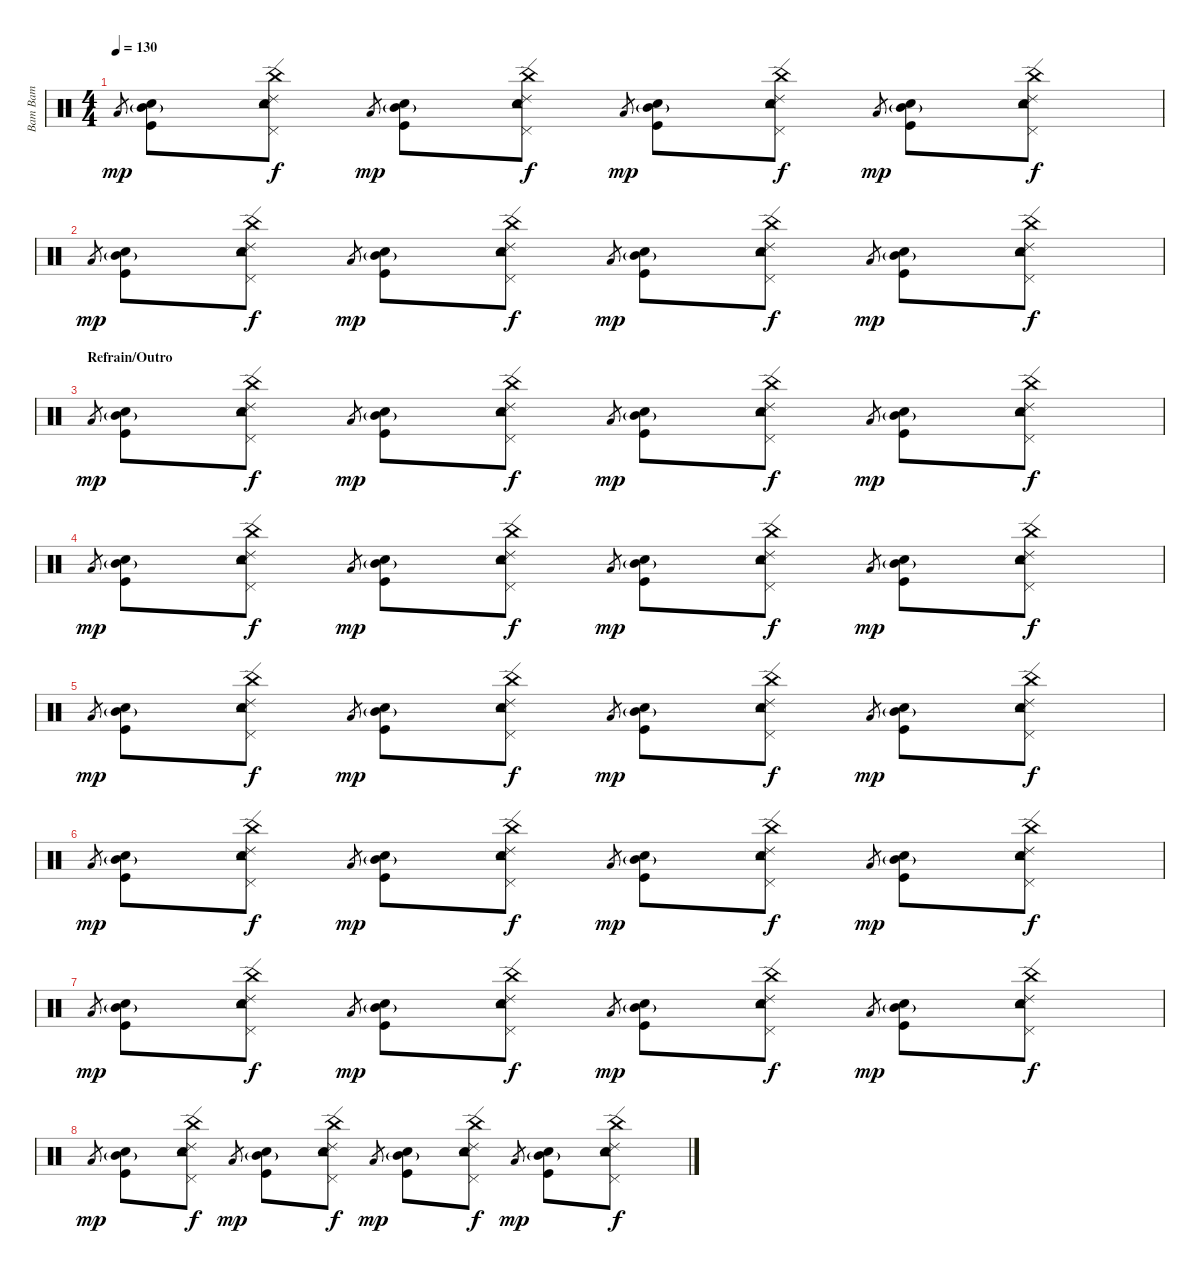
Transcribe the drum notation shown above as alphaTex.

\track ("Bam Bam" "Bam Bam") {instrument percussion}
\staff {score}
\articulation defaults
\ts (4 4)
\tempo 130
\clef neutral
\ks c "Low Tom (hit)".8{gr dy mp}
("Mid Tom (hit)"{g} "Kick (hit)" "Snare (hit) 2").8 ("Tambourine (hit)" "Pedal Hi-Hat (hit)" "China (hit)" "Ride (edge) 2" "Electric Snare (hit)").8{dy f} "Low Tom (hit)".8{gr dy mp} ("Mid Tom (hit)"{g} "Kick (hit)" "Snare (hit) 2").8 ("Tambourine (hit)" "Pedal Hi-Hat (hit)" "China (hit)" "Ride (edge) 2" "Electric Snare (hit)").8{dy f} "Low Tom (hit)".8{gr dy mp} ("Mid Tom (hit)"{g} "Kick (hit)" "Snare (hit) 2").8 ("Tambourine (hit)" "Pedal Hi-Hat (hit)" "China (hit)" "Ride (edge) 2" "Electric Snare (hit)").8{dy f} "Low Tom (hit)".8{gr dy mp} ("Mid Tom (hit)"{g} "Kick (hit)" "Snare (hit) 2").8 ("Tambourine (hit)" "Pedal Hi-Hat (hit)" "China (hit)" "Ride (edge) 2" "Electric Snare (hit)").8{dy f} |
"Low Tom (hit)".8{gr dy mp} ("Mid Tom (hit)"{g} "Kick (hit)" "Snare (hit) 2").8 ("Tambourine (hit)" "Pedal Hi-Hat (hit)" "China (hit)" "Ride (edge) 2" "Electric Snare (hit)").8{dy f} "Low Tom (hit)".8{gr dy mp} ("Mid Tom (hit)"{g} "Kick (hit)" "Snare (hit) 2").8 ("Tambourine (hit)" "Pedal Hi-Hat (hit)" "China (hit)" "Ride (edge) 2" "Electric Snare (hit)").8{dy f} "Low Tom (hit)".8{gr dy mp} ("Mid Tom (hit)"{g} "Kick (hit)" "Snare (hit) 2").8 ("Tambourine (hit)" "Pedal Hi-Hat (hit)" "China (hit)" "Ride (edge) 2" "Electric Snare (hit)").8{dy f} "Low Tom (hit)".8{gr dy mp} ("Mid Tom (hit)"{g} "Kick (hit)" "Snare (hit) 2").8 ("Tambourine (hit)" "Pedal Hi-Hat (hit)" "China (hit)" "Ride (edge) 2" "Electric Snare (hit)").8{dy f} |
\section ("" "Refrain/Outro")
"Low Tom (hit)".8{gr dy mp} ("Mid Tom (hit)"{g} "Kick (hit)" "Snare (hit) 2").8 ("Tambourine (hit)" "Pedal Hi-Hat (hit)" "China (hit)" "Ride (edge) 2" "Electric Snare (hit)").8{dy f} "Low Tom (hit)".8{gr dy mp} ("Mid Tom (hit)"{g} "Kick (hit)" "Snare (hit) 2").8 ("Tambourine (hit)" "Pedal Hi-Hat (hit)" "China (hit)" "Ride (edge) 2" "Electric Snare (hit)").8{dy f} "Low Tom (hit)".8{gr dy mp} ("Mid Tom (hit)"{g} "Kick (hit)" "Snare (hit) 2").8 ("Tambourine (hit)" "Pedal Hi-Hat (hit)" "China (hit)" "Ride (edge) 2" "Electric Snare (hit)").8{dy f} "Low Tom (hit)".8{gr dy mp} ("Mid Tom (hit)"{g} "Kick (hit)" "Snare (hit) 2").8 ("Tambourine (hit)" "Pedal Hi-Hat (hit)" "China (hit)" "Ride (edge) 2" "Electric Snare (hit)").8{dy f} |
"Low Tom (hit)".8{gr dy mp} ("Mid Tom (hit)"{g} "Kick (hit)" "Snare (hit) 2").8 ("Tambourine (hit)" "Pedal Hi-Hat (hit)" "China (hit)" "Ride (edge) 2" "Electric Snare (hit)").8{dy f} "Low Tom (hit)".8{gr dy mp} ("Mid Tom (hit)"{g} "Kick (hit)" "Snare (hit) 2").8 ("Tambourine (hit)" "Pedal Hi-Hat (hit)" "China (hit)" "Ride (edge) 2" "Electric Snare (hit)").8{dy f} "Low Tom (hit)".8{gr dy mp} ("Mid Tom (hit)"{g} "Kick (hit)" "Snare (hit) 2").8 ("Tambourine (hit)" "Pedal Hi-Hat (hit)" "China (hit)" "Ride (edge) 2" "Electric Snare (hit)").8{dy f} "Low Tom (hit)".8{gr dy mp} ("Mid Tom (hit)"{g} "Kick (hit)" "Snare (hit) 2").8 ("Tambourine (hit)" "Pedal Hi-Hat (hit)" "China (hit)" "Ride (edge) 2" "Electric Snare (hit)").8{dy f} |
"Low Tom (hit)".8{gr dy mp} ("Mid Tom (hit)"{g} "Kick (hit)" "Snare (hit) 2").8 ("Tambourine (hit)" "Pedal Hi-Hat (hit)" "China (hit)" "Ride (edge) 2" "Electric Snare (hit)").8{dy f} "Low Tom (hit)".8{gr dy mp} ("Mid Tom (hit)"{g} "Kick (hit)" "Snare (hit) 2").8 ("Tambourine (hit)" "Pedal Hi-Hat (hit)" "China (hit)" "Ride (edge) 2" "Electric Snare (hit)").8{dy f} "Low Tom (hit)".8{gr dy mp} ("Mid Tom (hit)"{g} "Kick (hit)" "Snare (hit) 2").8 ("Tambourine (hit)" "Pedal Hi-Hat (hit)" "China (hit)" "Ride (edge) 2" "Electric Snare (hit)").8{dy f} "Low Tom (hit)".8{gr dy mp} ("Mid Tom (hit)"{g} "Kick (hit)" "Snare (hit) 2").8 ("Tambourine (hit)" "Pedal Hi-Hat (hit)" "China (hit)" "Ride (edge) 2" "Electric Snare (hit)").8{dy f} |
"Low Tom (hit)".8{gr dy mp} ("Mid Tom (hit)"{g} "Kick (hit)" "Snare (hit) 2").8 ("Tambourine (hit)" "Pedal Hi-Hat (hit)" "China (hit)" "Ride (edge) 2" "Electric Snare (hit)").8{dy f} "Low Tom (hit)".8{gr dy mp} ("Mid Tom (hit)"{g} "Kick (hit)" "Snare (hit) 2").8 ("Tambourine (hit)" "Pedal Hi-Hat (hit)" "China (hit)" "Ride (edge) 2" "Electric Snare (hit)").8{dy f} "Low Tom (hit)".8{gr dy mp} ("Mid Tom (hit)"{g} "Kick (hit)" "Snare (hit) 2").8 ("Tambourine (hit)" "Pedal Hi-Hat (hit)" "China (hit)" "Ride (edge) 2" "Electric Snare (hit)").8{dy f} "Low Tom (hit)".8{gr dy mp} ("Mid Tom (hit)"{g} "Kick (hit)" "Snare (hit) 2").8 ("Tambourine (hit)" "Pedal Hi-Hat (hit)" "China (hit)" "Ride (edge) 2" "Electric Snare (hit)").8{dy f} |
"Low Tom (hit)".8{gr dy mp} ("Mid Tom (hit)"{g} "Kick (hit)" "Snare (hit) 2").8 ("Tambourine (hit)" "Pedal Hi-Hat (hit)" "China (hit)" "Ride (edge) 2" "Electric Snare (hit)").8{dy f} "Low Tom (hit)".8{gr dy mp} ("Mid Tom (hit)"{g} "Kick (hit)" "Snare (hit) 2").8 ("Tambourine (hit)" "Pedal Hi-Hat (hit)" "China (hit)" "Ride (edge) 2" "Electric Snare (hit)").8{dy f} "Low Tom (hit)".8{gr dy mp} ("Mid Tom (hit)"{g} "Kick (hit)" "Snare (hit) 2").8 ("Tambourine (hit)" "Pedal Hi-Hat (hit)" "China (hit)" "Ride (edge) 2" "Electric Snare (hit)").8{dy f} "Low Tom (hit)".8{gr dy mp} ("Mid Tom (hit)"{g} "Kick (hit)" "Snare (hit) 2").8 ("Tambourine (hit)" "Pedal Hi-Hat (hit)" "China (hit)" "Ride (edge) 2" "Electric Snare (hit)").8{dy f} |
"Low Tom (hit)".8{gr dy mp} ("Mid Tom (hit)"{g} "Kick (hit)" "Snare (hit) 2").8 ("Tambourine (hit)" "Pedal Hi-Hat (hit)" "China (hit)" "Ride (edge) 2" "Electric Snare (hit)").8{dy f} "Low Tom (hit)".8{gr dy mp} ("Mid Tom (hit)"{g} "Kick (hit)" "Snare (hit) 2").8 ("Tambourine (hit)" "Pedal Hi-Hat (hit)" "China (hit)" "Ride (edge) 2" "Electric Snare (hit)").8{dy f} "Low Tom (hit)".8{gr dy mp} ("Mid Tom (hit)"{g} "Kick (hit)" "Snare (hit) 2").8 ("Tambourine (hit)" "Pedal Hi-Hat (hit)" "China (hit)" "Ride (edge) 2" "Electric Snare (hit)").8{dy f} "Low Tom (hit)".8{gr dy mp} ("Mid Tom (hit)"{g} "Kick (hit)" "Snare (hit) 2").8 ("Tambourine (hit)" "Pedal Hi-Hat (hit)" "China (hit)" "Ride (edge) 2" "Electric Snare (hit)").8{dy f}
